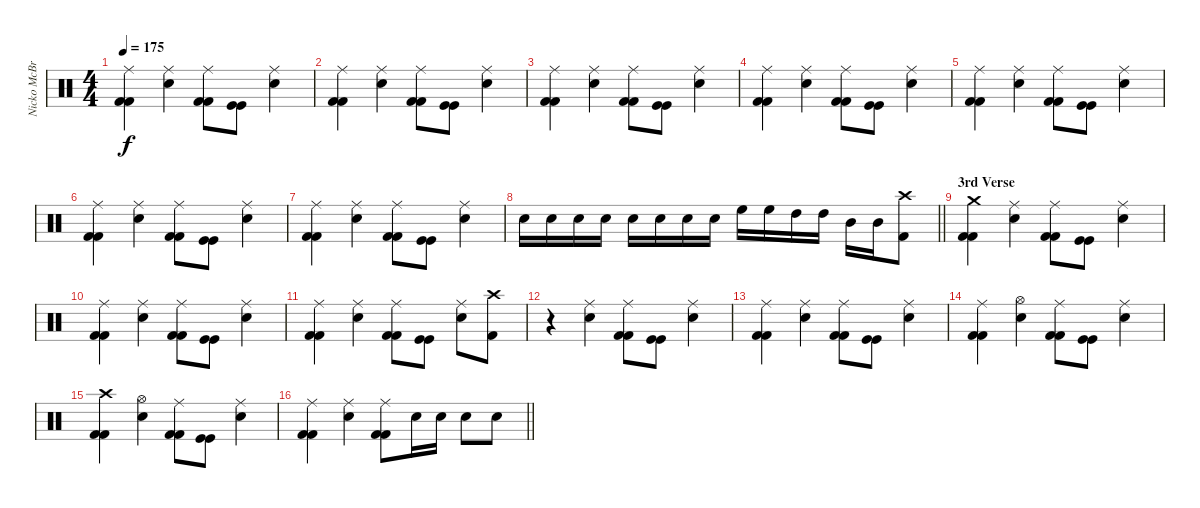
\track ("Nicko McBrian" "Nicko McBr") {instrument percussion}
\staff {score}
\articulation defaults
\ts (4 4)
\tempo 175
\clef neutral
\ks c
("Ride (middle)" "Kick (hit) 2" "Kick (hit) 2").4{dy f} ("Ride (middle)" "Snare (hit) 2").4 ("Ride (middle)" "Kick (hit) 2" "Kick (hit) 2").8 ("Kick (hit)" "Kick (hit)").8 ("Ride (middle)" "Snare (hit) 2").4 |
("Ride (middle)" "Kick (hit) 2" "Kick (hit) 2").4 ("Ride (middle)" "Snare (hit) 2").4 ("Ride (middle)" "Kick (hit) 2" "Kick (hit) 2").8 ("Kick (hit)" "Kick (hit)").8 ("Ride (middle)" "Snare (hit) 2").4 |
("Ride (middle)" "Kick (hit) 2" "Kick (hit) 2").4 ("Ride (middle)" "Snare (hit) 2").4 ("Ride (middle)" "Kick (hit) 2" "Kick (hit) 2").8 ("Kick (hit)" "Kick (hit)").8 ("Ride (middle)" "Snare (hit) 2").4 |
("Ride (middle)" "Kick (hit) 2" "Kick (hit) 2").4 ("Ride (middle)" "Snare (hit) 2").4 ("Ride (middle)" "Kick (hit) 2" "Kick (hit) 2").8 ("Kick (hit)" "Kick (hit)").8 ("Ride (middle)" "Snare (hit) 2").4 |
("Ride (middle)" "Kick (hit) 2" "Kick (hit) 2").4 ("Ride (middle)" "Snare (hit) 2").4 ("Ride (middle)" "Kick (hit) 2" "Kick (hit) 2").8 ("Kick (hit)" "Kick (hit)").8 ("Ride (middle)" "Snare (hit) 2").4 |
("Ride (middle)" "Kick (hit) 2" "Kick (hit) 2").4 ("Ride (middle)" "Snare (hit) 2").4 ("Ride (middle)" "Kick (hit) 2" "Kick (hit) 2").8 ("Kick (hit)" "Kick (hit)").8 ("Ride (middle)" "Snare (hit) 2").4 |
("Ride (middle)" "Kick (hit) 2" "Kick (hit) 2").4 ("Ride (middle)" "Snare (hit) 2").4 ("Ride (middle)" "Kick (hit) 2" "Kick (hit) 2").8 ("Kick (hit)" "Kick (hit)").8 ("Ride (middle)" "Snare (hit) 2").4 |
\barLineRight lightlight "Snare (hit) 2".16 "Snare (hit) 2".16 "Snare (hit) 2".16 "Snare (hit) 2".16 "Snare (hit) 2".16 "Snare (hit) 2".16 "Snare (hit) 2".16 "Snare (hit) 2".16 "High Floor Tom (hit)".16 "High Floor Tom (hit)".16 "High Tom (hit)".16 "High Tom (hit)".16 "Mid Tom (hit)".16 "Mid Tom (hit)".16
("Crash high (hit)" "Kick (hit) 2").8 |
\section ("" "3rd Verse")
("Crash medium (hit)" "Kick (hit) 2" "Kick (hit) 2").4 ("Ride (middle)" "Snare (hit) 2").4 ("Ride (middle)" "Kick (hit) 2" "Kick (hit) 2").8 ("Kick (hit)" "Kick (hit)").8 ("Ride (middle)" "Snare (hit) 2").4 |
("Ride (middle)" "Kick (hit) 2" "Kick (hit) 2").4 ("Ride (middle)" "Snare (hit) 2").4 ("Ride (middle)" "Kick (hit) 2" "Kick (hit) 2").8 ("Kick (hit)" "Kick (hit)").8 ("Ride (middle)" "Snare (hit) 2").4 |
("Ride (middle)" "Kick (hit) 2" "Kick (hit) 2").4 ("Ride (middle)" "Snare (hit) 2").4 ("Ride (middle)" "Kick (hit) 2" "Kick (hit) 2").8 ("Kick (hit)" "Kick (hit)").8 ("Ride (middle)" "Snare (hit) 2").8 ("Crash high (hit)" "Kick (hit) 2").8 |
r.4 ("Ride (middle)" "Snare (hit) 2").4 ("Ride (middle)" "Kick (hit) 2" "Kick (hit) 2").8 ("Kick (hit)" "Kick (hit)").8 ("Ride (middle)" "Snare (hit) 2").4 |
("Ride (middle)" "Kick (hit) 2" "Kick (hit) 2").4 ("Ride (middle)" "Snare (hit) 2").4 ("Ride (middle)" "Kick (hit) 2" "Kick (hit) 2").8 ("Kick (hit)" "Kick (hit)").8 ("Ride (middle)" "Snare (hit) 2").4 |
("Ride (middle)" "Kick (hit) 2" "Kick (hit) 2").4 ("Hi-Hat (open)" "Snare (hit) 2").4 ("Ride (middle)" "Kick (hit) 2" "Kick (hit) 2").8 ("Kick (hit)" "Kick (hit)").8 ("Ride (middle)" "Snare (hit) 2").4 |
("Crash high (hit)" "Kick (hit) 2" "Kick (hit) 2").4 ("Hi-Hat (open)" "Snare (hit) 2").4 ("Ride (middle)" "Kick (hit) 2" "Kick (hit) 2").8 ("Kick (hit)" "Kick (hit)").8 ("Ride (middle)" "Snare (hit) 2").4 |
\barLineRight lightlight
("Ride (middle)" "Kick (hit) 2" "Kick (hit) 2").4 ("Ride (middle)" "Snare (hit) 2").4 ("Ride (middle)" "Kick (hit) 2" "Kick (hit) 2").8 "Snare (hit) 2".16 "Snare (hit) 2".16 "Snare (hit) 2".8 "Snare (hit) 2".8
